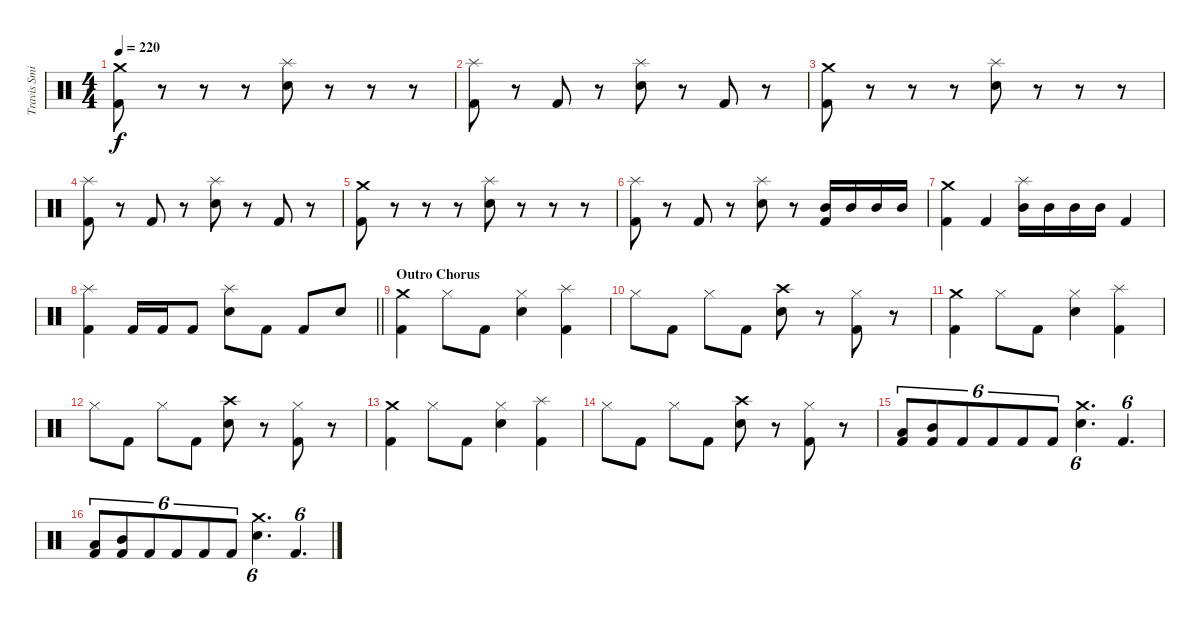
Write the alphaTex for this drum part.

\track ("Travis Smith" "Travis Smi") {instrument percussion}
\staff {score}
\articulation defaults
\ts (4 4)
\tempo 220
\clef neutral
\ks c
("Crash medium (hit)" "Kick (hit) 2").8{dy f} r.8 r.8 r.8 ("Splash (hit)" "Electric Snare (hit)").8 r.8 r.8 r.8 |
("Splash (hit)" "Kick (hit) 2").8 r.8 "Kick (hit) 2".8 r.8 ("Splash (hit)" "Electric Snare (hit)").8 r.8 "Kick (hit) 2".8 r.8 |
("Crash medium (hit)" "Kick (hit) 2").8 r.8 r.8 r.8 ("Splash (hit)" "Electric Snare (hit)").8 r.8 r.8 r.8 |
("Splash (hit)" "Kick (hit) 2").8 r.8 "Kick (hit) 2".8 r.8 ("Splash (hit)" "Electric Snare (hit)").8 r.8 "Kick (hit) 2".8 r.8 |
("Crash medium (hit)" "Kick (hit) 2").8 r.8 r.8 r.8 ("Splash (hit)" "Electric Snare (hit)").8 r.8 r.8 r.8 |
("Splash (hit)" "Kick (hit) 2").8 r.8 "Kick (hit) 2".8 r.8 ("Splash (hit)" "Electric Snare (hit)").8 r.8 ("Mid Tom (hit)" "Kick (hit) 2").16 "Mid Tom (hit)".16 "Mid Tom (hit)".16 "Mid Tom (hit)".16 |
("Crash medium (hit)" "Kick (hit) 2").4 "Kick (hit) 2".4 ("Splash (hit)" "Mid Tom (hit)").16 "Mid Tom (hit)".16 "Mid Tom (hit)".16 "Mid Tom (hit)".16 "Kick (hit) 2".4 |
\barLineRight lightlight
("Splash (hit)" "Kick (hit) 2").4 "Kick (hit) 2".16 "Kick (hit) 2".16 "Kick (hit) 2".8 ("Splash (hit)" "Electric Snare (hit)").8 "Kick (hit) 2".8 "Kick (hit) 2".8 "Electric Snare (hit)".8 |
\section ("" "Outro Chorus")
("Crash medium (hit)" "Kick (hit) 2").4 "Hi-Hat (closed)".8 "Kick (hit) 2".8 ("Hi-Hat (closed)" "Electric Snare (hit)").4 ("Splash (hit)" "Kick (hit) 2").4 |
"Hi-Hat (closed)".8 "Kick (hit) 2".8 "Hi-Hat (closed)".8 "Kick (hit) 2".8 ("Crash high (hit)" "Electric Snare (hit)").8 r.8 ("Hi-Hat (closed)" "Kick (hit) 2").8 r.8 |
("Crash medium (hit)" "Kick (hit) 2").4 "Hi-Hat (closed)".8 "Kick (hit) 2".8 ("Hi-Hat (closed)" "Electric Snare (hit)").4 ("Splash (hit)" "Kick (hit) 2").4 |
"Hi-Hat (closed)".8 "Kick (hit) 2".8 "Hi-Hat (closed)".8 "Kick (hit) 2".8 ("Crash high (hit)" "Electric Snare (hit)").8 r.8 ("Hi-Hat (closed)" "Kick (hit) 2").8 r.8 |
("Crash medium (hit)" "Kick (hit) 2").4 "Hi-Hat (closed)".8 "Kick (hit) 2".8 ("Hi-Hat (closed)" "Electric Snare (hit)").4 ("Splash (hit)" "Kick (hit) 2").4 |
"Hi-Hat (closed)".8 "Kick (hit) 2".8 "Hi-Hat (closed)".8 "Kick (hit) 2".8 ("Crash high (hit)" "Electric Snare (hit)").8 r.8 ("Hi-Hat (closed)" "Kick (hit) 2").8 r.8 |
("Low Tom (hit)" "Kick (hit) 2").8{tu (6 4)} ("Mid Tom (hit)" "Kick (hit) 2").8{tu (6 4)} "Kick (hit) 2".8{tu (6 4)} "Kick (hit) 2".8{tu (6 4)} "Kick (hit) 2".8{tu (6 4)} "Kick (hit) 2".8{tu (6 4)} ("Crash medium (hit)" "Electric Snare (hit)").4{d tu (6 4)} "Kick (hit) 2".4{d tu (6 4)} |
("Low Tom (hit)" "Kick (hit) 2").8{tu (6 4)} ("Mid Tom (hit)" "Kick (hit) 2").8{tu (6 4)} "Kick (hit) 2".8{tu (6 4)} "Kick (hit) 2".8{tu (6 4)} "Kick (hit) 2".8{tu (6 4)} "Kick (hit) 2".8{tu (6 4)} ("Crash medium (hit)" "Electric Snare (hit)").4{d tu (6 4)} "Kick (hit) 2".4{d tu (6 4)}
